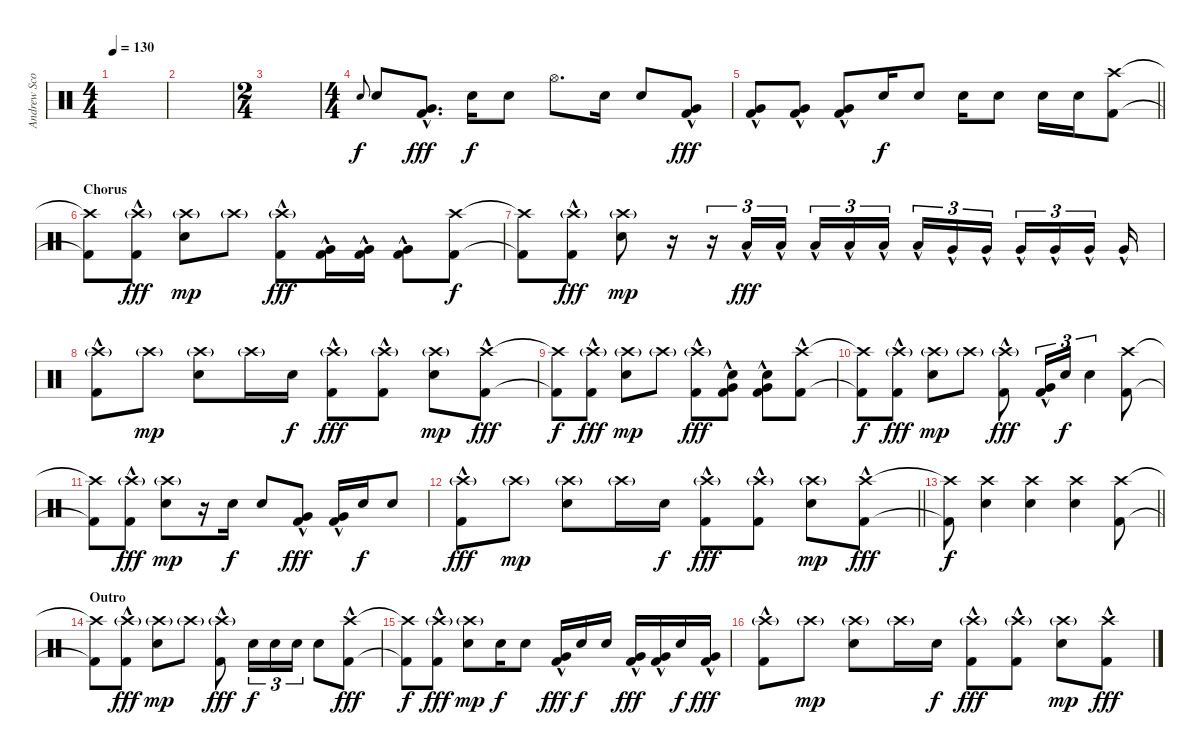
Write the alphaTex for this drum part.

\track ("Andrew Scott" "Andrew Sco") {instrument percussion}
\staff {score}
\articulation defaults
\ts (4 4)
\tempo 130
\clef neutral
\ks c
|
|
\ts (2 4)
|
\ts (4 4)
"Snare (hit) 2".8{gr onbeat dy f} "Snare (hit) 2".8 ("Very Low Tom (hit)" "Kick (hit) 2"{hac}).8{d dy fff} "Snare (hit) 2".16{dy f} "Snare (hit) 2".8 "Hi-Hat (open)".8{d} "Snare (hit) 2".16 "Snare (hit) 2".8 ("Very Low Tom (hit)" "Kick (hit) 2"{hac}).8{dy fff} |
\barLineRight lightlight
("Very Low Tom (hit)" "Kick (hit) 2"{hac}).8 ("Very Low Tom (hit)" "Kick (hit) 2"{hac}).8 ("Very Low Tom (hit)" "Kick (hit) 2"{hac}).8 "Snare (hit) 2".16{dy f} "Snare (hit) 2".8 "Snare (hit) 2".16 "Snare (hit) 2".8 "Snare (hit) 2".16 "Snare (hit) 2".16 ("Crash high (hit)" "Kick (hit) 2").8 |
\section ("" "Chorus")
("Crash high (hit)"{t} "Kick (hit) 2"{t}).8 ("Crash high (hit)"{g} "Kick (hit) 2"{hac}).8{dy fff} ("Crash high (hit)"{g} "Snare (hit) 2").8{dy mp} "Crash high (hit)"{g}.8 ("Crash high (hit)"{g} "Kick (hit) 2"{hac}).8{dy fff} ("Very Low Tom (hit)"{hac} "Kick (hit) 2"{hac}).16 ("Very Low Tom (hit)"{hac} "Kick (hit) 2"{hac}).16 ("Very Low Tom (hit)"{hac} "Kick (hit) 2"{hac}).8 ("Crash high (hit)" "Kick (hit) 2").8{dy f} |
("Crash high (hit)"{t} "Kick (hit) 2"{t}).8 ("Crash high (hit)"{g} "Kick (hit) 2"{hac}).8{dy fff} ("Crash high (hit)"{g} "Snare (hit) 2").8{dy mp} r.16 r.16{tu (3 2)} "Low Tom (hit)"{hac}.16{tu (3 2) dy fff} "Low Tom (hit)"{hac}.16{tu (3 2) beam splitsecondary} "Low Tom (hit)"{hac}.16{tu (3 2)} "Low Tom (hit)"{hac}.16{tu (3 2)} "Low Tom (hit)"{hac}.16{tu (3 2) beam splitsecondary} "Low Tom (hit)"{hac}.16{tu (3 2)} "Very Low Tom (hit)"{hac}.16{tu (3 2)} "Very Low Tom (hit)"{hac}.16{tu (3 2) beam splitsecondary} "Very Low Tom (hit)"{hac}.16{tu (3 2)} "Very Low Tom (hit)"{hac}.16{tu (3 2)} "Very Low Tom (hit)"{hac}.16{tu (3 2) beam splitsecondary} "Very Low Tom (hit)"{hac}.16 |
("Crash high (hit)"{g} "Kick (hit) 2"{hac}).8 "Crash high (hit)"{g}.8{dy mp} ("Crash high (hit)"{g} "Snare (hit) 2").8 "Crash high (hit)"{g}.16 "Snare (hit) 2".16{dy f} ("Crash high (hit)"{g} "Kick (hit) 2"{hac}).8{dy fff} ("Crash high (hit)"{g} "Kick (hit) 2"{hac}).8 ("Crash high (hit)"{g} "Snare (hit) 2").8{dy mp} ("Crash high (hit)" "Kick (hit) 2"{hac}).8{dy fff} |
("Crash high (hit)"{t} "Kick (hit) 2"{t}).8{dy f} ("Crash high (hit)"{g} "Kick (hit) 2"{hac}).8{dy fff} ("Crash high (hit)"{g} "Snare (hit) 2").8{dy mp} "Crash high (hit)"{g}.8 ("Crash high (hit)"{g} "Kick (hit) 2"{hac}).8{dy fff} ("Snare (hit) 2" "Very Low Tom (hit)"{hac} "Kick (hit) 2"{hac}).8 ("Snare (hit) 2" "Very Low Tom (hit)"{hac} "Kick (hit) 2"{hac}).8 ("Crash high (hit)" "Kick (hit) 2"{hac}).8 |
("Crash high (hit)"{t} "Kick (hit) 2"{t}).8{dy f} ("Crash high (hit)"{g} "Kick (hit) 2"{hac}).8{dy fff} ("Crash high (hit)"{g} "Snare (hit) 2").8{dy mp} "Crash high (hit)"{g}.8 ("Crash high (hit)"{g} "Kick (hit) 2"{hac}).8{dy fff} ("Very Low Tom (hit)"{hac} "Kick (hit) 2"{hac}).16{tu (3 2)} "Snare (hit) 2".16{tu (3 2) dy f} "Snare (hit) 2".4{tu (3 2)} ("Crash high (hit)" "Kick (hit) 2").8 |
("Crash high (hit)"{t} "Kick (hit) 2"{t}).8 ("Crash high (hit)"{g} "Kick (hit) 2"{hac}).8{dy fff} ("Crash high (hit)"{g} "Snare (hit) 2").8{dy mp} r.16 "Snare (hit) 2".16{dy f} "Snare (hit) 2".8 ("Very Low Tom (hit)"{hac} "Kick (hit) 2"{hac}).8{dy fff} ("Very Low Tom (hit)"{hac} "Kick (hit) 2"{hac}).16 "Snare (hit) 2".16{dy f} "Snare (hit) 2".8 |
\barLineRight lightlight
("Crash high (hit)"{g} "Kick (hit) 2"{hac}).8{dy fff} "Crash high (hit)"{g}.8{dy mp} ("Crash high (hit)"{g} "Snare (hit) 2").8 "Crash high (hit)"{g}.16 "Snare (hit) 2".16{dy f} ("Crash high (hit)"{g} "Kick (hit) 2"{hac}).8{dy fff} ("Crash high (hit)"{g} "Kick (hit) 2"{hac}).8 ("Crash high (hit)"{g} "Snare (hit) 2").8{dy mp} ("Crash high (hit)" "Kick (hit) 2"{hac}).8{dy fff} |
\barLineRight lightlight
("Crash high (hit)"{t} "Kick (hit) 2"{t}).8{dy f} ("Crash high (hit)" "Snare (hit) 2").4 ("Crash high (hit)" "Snare (hit) 2").4 ("Crash high (hit)" "Snare (hit) 2").4 ("Crash high (hit)" "Kick (hit) 2").8 |
\section ("" "Outro")
("Crash high (hit)"{t} "Kick (hit) 2"{t}).8 ("Crash high (hit)"{g} "Kick (hit) 2"{hac}).8{dy fff} ("Crash high (hit)"{g} "Snare (hit) 2").8{dy mp} "Crash high (hit)"{g}.8 ("Crash high (hit)"{g} "Kick (hit) 2"{hac}).8{dy fff} "Snare (hit) 2".16{tu (3 2) dy f} "Snare (hit) 2".16{tu (3 2)} "Snare (hit) 2".16{tu (3 2)} "Snare (hit) 2".8 ("Crash high (hit)" "Kick (hit) 2"{hac}).8{dy fff} |
("Crash high (hit)"{t} "Kick (hit) 2"{t}).8{dy f} ("Crash high (hit)"{g} "Kick (hit) 2"{hac}).8{dy fff} ("Crash high (hit)"{g} "Snare (hit) 2").8{dy mp} "Snare (hit) 2".16{dy f} "Snare (hit) 2".8 ("Very Low Tom (hit)"{hac} "Kick (hit) 2"{hac}).16{dy fff} "Snare (hit) 2".16{dy f} "Snare (hit) 2".16 ("Very Low Tom (hit)"{hac} "Kick (hit) 2"{hac}).16{dy fff} ("Very Low Tom (hit)"{hac} "Kick (hit) 2"{hac}).16 "Snare (hit) 2".16{dy f} ("Very Low Tom (hit)"{hac} "Kick (hit) 2"{hac}).16{dy fff} |
("Crash high (hit)"{g} "Kick (hit) 2"{hac}).8 "Crash high (hit)"{g}.8{dy mp} ("Crash high (hit)"{g} "Snare (hit) 2").8 "Crash high (hit)"{g}.16 "Snare (hit) 2".16{dy f} ("Crash high (hit)"{g} "Kick (hit) 2"{hac}).8{dy fff} ("Crash high (hit)"{g} "Kick (hit) 2"{hac}).8 ("Crash high (hit)"{g} "Snare (hit) 2").8{dy mp} ("Crash high (hit)" "Kick (hit) 2"{hac}).8{dy fff}
